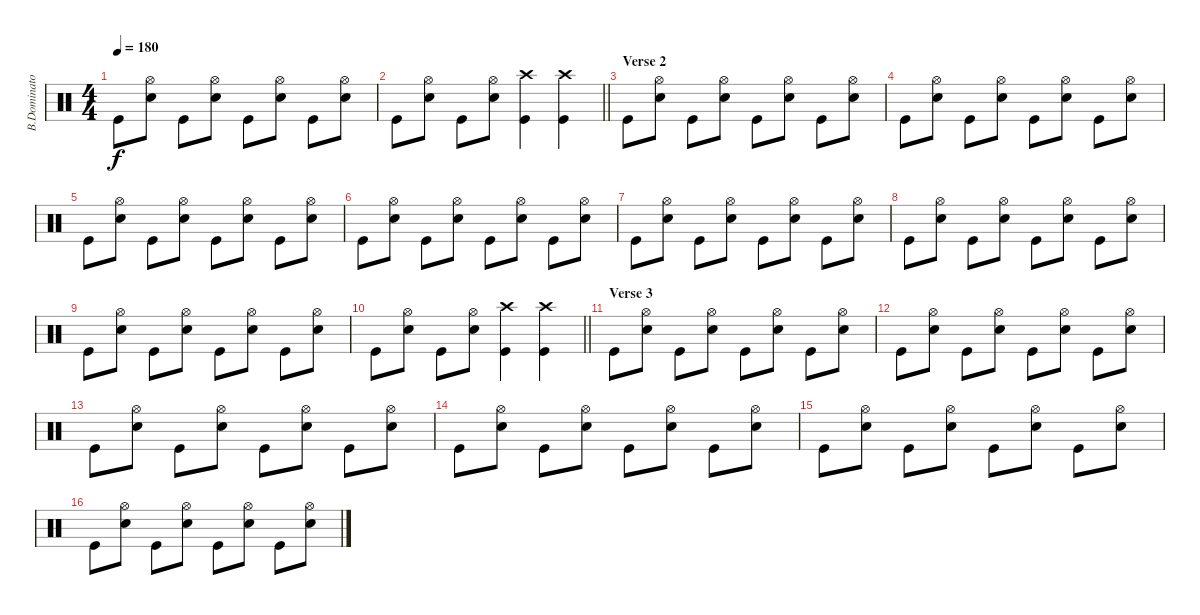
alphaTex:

\track ("B.Dominator" "B.Dominato") {instrument percussion}
\staff {score}
\articulation defaults
\ts (4 4)
\tempo 180
\clef neutral
\ks c "Kick (hit)".8{dy f}
("Hi-Hat (open)" "Snare (hit) 2").8 "Kick (hit)".8 ("Hi-Hat (open)" "Snare (hit) 2").8 "Kick (hit)".8 ("Hi-Hat (open)" "Snare (hit) 2").8 "Kick (hit)".8 ("Hi-Hat (open)" "Snare (hit) 2").8 |
\barLineRight lightlight "Kick (hit)".8
("Hi-Hat (open)" "Snare (hit) 2").8 "Kick (hit)".8 ("Hi-Hat (open)" "Snare (hit) 2").8 ("Crash high (hit)" "Kick (hit)").4 ("Crash high (hit)" "Kick (hit)").4 |
\section ("" "Verse 2")
"Kick (hit)".8 ("Hi-Hat (open)" "Snare (hit) 2").8 "Kick (hit)".8 ("Hi-Hat (open)" "Snare (hit) 2").8 "Kick (hit)".8 ("Hi-Hat (open)" "Snare (hit) 2").8 "Kick (hit)".8 ("Hi-Hat (open)" "Snare (hit) 2").8 |
"Kick (hit)".8 ("Hi-Hat (open)" "Snare (hit) 2").8 "Kick (hit)".8 ("Hi-Hat (open)" "Snare (hit) 2").8 "Kick (hit)".8 ("Hi-Hat (open)" "Snare (hit) 2").8 "Kick (hit)".8 ("Hi-Hat (open)" "Snare (hit) 2").8 |
"Kick (hit)".8 ("Hi-Hat (open)" "Snare (hit) 2").8 "Kick (hit)".8 ("Hi-Hat (open)" "Snare (hit) 2").8 "Kick (hit)".8 ("Hi-Hat (open)" "Snare (hit) 2").8 "Kick (hit)".8 ("Hi-Hat (open)" "Snare (hit) 2").8 |
"Kick (hit)".8 ("Hi-Hat (open)" "Snare (hit) 2").8 "Kick (hit)".8 ("Hi-Hat (open)" "Snare (hit) 2").8 "Kick (hit)".8 ("Hi-Hat (open)" "Snare (hit) 2").8 "Kick (hit)".8 ("Hi-Hat (open)" "Snare (hit) 2").8 |
"Kick (hit)".8 ("Hi-Hat (open)" "Snare (hit) 2").8 "Kick (hit)".8 ("Hi-Hat (open)" "Snare (hit) 2").8 "Kick (hit)".8 ("Hi-Hat (open)" "Snare (hit) 2").8 "Kick (hit)".8 ("Hi-Hat (open)" "Snare (hit) 2").8 |
"Kick (hit)".8 ("Hi-Hat (open)" "Snare (hit) 2").8 "Kick (hit)".8 ("Hi-Hat (open)" "Snare (hit) 2").8 "Kick (hit)".8 ("Hi-Hat (open)" "Snare (hit) 2").8 "Kick (hit)".8 ("Hi-Hat (open)" "Snare (hit) 2").8 |
"Kick (hit)".8 ("Hi-Hat (open)" "Snare (hit) 2").8 "Kick (hit)".8 ("Hi-Hat (open)" "Snare (hit) 2").8 "Kick (hit)".8 ("Hi-Hat (open)" "Snare (hit) 2").8 "Kick (hit)".8 ("Hi-Hat (open)" "Snare (hit) 2").8 |
\barLineRight lightlight "Kick (hit)".8
("Hi-Hat (open)" "Snare (hit) 2").8 "Kick (hit)".8 ("Hi-Hat (open)" "Snare (hit) 2").8 ("Crash high (hit)" "Kick (hit)").4 ("Crash high (hit)" "Kick (hit)").4 |
\section ("" "Verse 3")
"Kick (hit)".8 ("Hi-Hat (open)" "Snare (hit) 2").8 "Kick (hit)".8 ("Hi-Hat (open)" "Snare (hit) 2").8 "Kick (hit)".8 ("Hi-Hat (open)" "Snare (hit) 2").8 "Kick (hit)".8 ("Hi-Hat (open)" "Snare (hit) 2").8 |
"Kick (hit)".8 ("Hi-Hat (open)" "Snare (hit) 2").8 "Kick (hit)".8 ("Hi-Hat (open)" "Snare (hit) 2").8 "Kick (hit)".8 ("Hi-Hat (open)" "Snare (hit) 2").8 "Kick (hit)".8 ("Hi-Hat (open)" "Snare (hit) 2").8 |
"Kick (hit)".8 ("Hi-Hat (open)" "Snare (hit) 2").8 "Kick (hit)".8 ("Hi-Hat (open)" "Snare (hit) 2").8 "Kick (hit)".8 ("Hi-Hat (open)" "Snare (hit) 2").8 "Kick (hit)".8 ("Hi-Hat (open)" "Snare (hit) 2").8 |
"Kick (hit)".8 ("Hi-Hat (open)" "Snare (hit) 2").8 "Kick (hit)".8 ("Hi-Hat (open)" "Snare (hit) 2").8 "Kick (hit)".8 ("Hi-Hat (open)" "Snare (hit) 2").8 "Kick (hit)".8 ("Hi-Hat (open)" "Snare (hit) 2").8 |
"Kick (hit)".8 ("Hi-Hat (open)" "Snare (hit) 2").8 "Kick (hit)".8 ("Hi-Hat (open)" "Snare (hit) 2").8 "Kick (hit)".8 ("Hi-Hat (open)" "Snare (hit) 2").8 "Kick (hit)".8 ("Hi-Hat (open)" "Snare (hit) 2").8 |
"Kick (hit)".8 ("Hi-Hat (open)" "Snare (hit) 2").8 "Kick (hit)".8 ("Hi-Hat (open)" "Snare (hit) 2").8 "Kick (hit)".8 ("Hi-Hat (open)" "Snare (hit) 2").8 "Kick (hit)".8 ("Hi-Hat (open)" "Snare (hit) 2").8
